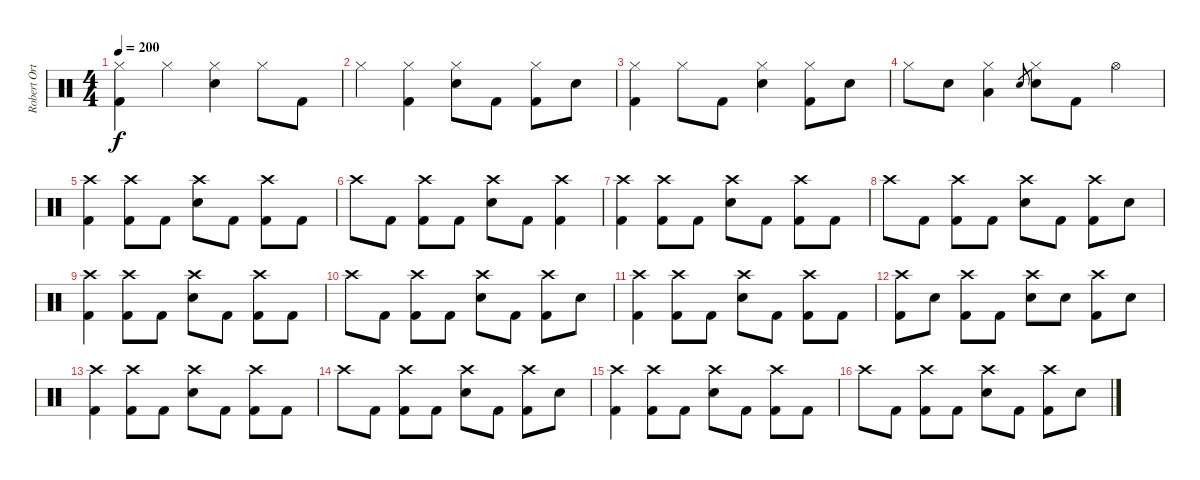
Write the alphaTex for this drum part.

\track ("Robert Ortiz - Drums" "Robert Ort") {instrument percussion}
\staff {score}
\articulation defaults
\ts (4 4)
\tempo 200
\clef neutral
\ks c
("Hi-Hat (closed)" "Kick (hit) 2").4{dy f} "Hi-Hat (closed)".4 ("Hi-Hat (closed)" "Electric Snare (hit)").4 "Hi-Hat (closed)".8 "Kick (hit) 2".8 |
"Hi-Hat (closed)".4 ("Hi-Hat (closed)" "Kick (hit) 2").4 ("Hi-Hat (closed)" "Electric Snare (hit)").8 "Kick (hit) 2".8 ("Hi-Hat (closed)" "Kick (hit) 2").8 "Electric Snare (hit)".8 |
("Hi-Hat (closed)" "Kick (hit) 2").4 "Hi-Hat (closed)".8 "Kick (hit) 2".8 ("Hi-Hat (closed)" "Electric Snare (hit)").4 ("Hi-Hat (closed)" "Kick (hit) 2").8 "Electric Snare (hit)".8 |
"Hi-Hat (closed)".8 "Electric Snare (hit)".8 ("Hi-Hat (closed)" "Low Tom (hit)").4 "Electric Snare (hit)".8{gr} ("Hi-Hat (closed)" "Electric Snare (hit)").8 "Kick (hit) 2".8 "Hi-Hat (open)".4 |
("Crash high (hit)" "Kick (hit) 2").4 ("Crash high (hit)" "Kick (hit) 2").8 "Kick (hit) 2".8 ("Crash high (hit)" "Electric Snare (hit)").8 "Kick (hit) 2".8 ("Crash high (hit)" "Kick (hit) 2").8 "Kick (hit) 2".8 |
"Crash high (hit)".8 "Kick (hit) 2".8 ("Crash high (hit)" "Kick (hit) 2").8 "Kick (hit) 2".8 ("Crash high (hit)" "Electric Snare (hit)").8 "Kick (hit) 2".8 ("Crash high (hit)" "Kick (hit) 2").4 |
("Crash high (hit)" "Kick (hit) 2").4 ("Crash high (hit)" "Kick (hit) 2").8 "Kick (hit) 2".8 ("Crash high (hit)" "Electric Snare (hit)").8 "Kick (hit) 2".8 ("Crash high (hit)" "Kick (hit) 2").8 "Kick (hit) 2".8 |
"Crash high (hit)".8 "Kick (hit) 2".8 ("Crash high (hit)" "Kick (hit) 2").8 "Kick (hit) 2".8 ("Crash high (hit)" "Electric Snare (hit)").8 "Kick (hit) 2".8 ("Crash high (hit)" "Kick (hit) 2").8 "Electric Snare (hit)".8 |
("Crash high (hit)" "Kick (hit) 2").4 ("Crash high (hit)" "Kick (hit) 2").8 "Kick (hit) 2".8 ("Crash high (hit)" "Electric Snare (hit)").8 "Kick (hit) 2".8 ("Crash high (hit)" "Kick (hit) 2").8 "Kick (hit) 2".8 |
"Crash high (hit)".8 "Kick (hit) 2".8 ("Crash high (hit)" "Kick (hit) 2").8 "Kick (hit) 2".8 ("Crash high (hit)" "Electric Snare (hit)").8 "Kick (hit) 2".8 ("Crash high (hit)" "Kick (hit) 2").8 "Electric Snare (hit)".8 |
("Crash high (hit)" "Kick (hit) 2").4 ("Crash high (hit)" "Kick (hit) 2").8 "Kick (hit) 2".8 ("Crash high (hit)" "Electric Snare (hit)").8 "Kick (hit) 2".8 ("Crash high (hit)" "Kick (hit) 2").8 "Kick (hit) 2".8 |
("Crash high (hit)" "Kick (hit) 2").8 "Electric Snare (hit)".8 ("Crash high (hit)" "Kick (hit) 2").8 "Kick (hit) 2".8 ("Crash high (hit)" "Electric Snare (hit)").8 "Electric Snare (hit)".8 ("Crash high (hit)" "Kick (hit) 2").8 "Electric Snare (hit)".8 |
("Crash high (hit)" "Kick (hit) 2").4 ("Crash high (hit)" "Kick (hit) 2").8 "Kick (hit) 2".8 ("Crash high (hit)" "Electric Snare (hit)").8 "Kick (hit) 2".8 ("Crash high (hit)" "Kick (hit) 2").8 "Kick (hit) 2".8 |
"Crash high (hit)".8 "Kick (hit) 2".8 ("Crash high (hit)" "Kick (hit) 2").8 "Kick (hit) 2".8 ("Crash high (hit)" "Electric Snare (hit)").8 "Kick (hit) 2".8 ("Crash high (hit)" "Kick (hit) 2").8 "Electric Snare (hit)".8 |
("Crash high (hit)" "Kick (hit) 2").4 ("Crash high (hit)" "Kick (hit) 2").8 "Kick (hit) 2".8 ("Crash high (hit)" "Electric Snare (hit)").8 "Kick (hit) 2".8 ("Crash high (hit)" "Kick (hit) 2").8 "Kick (hit) 2".8 |
"Crash high (hit)".8 "Kick (hit) 2".8 ("Crash high (hit)" "Kick (hit) 2").8 "Kick (hit) 2".8 ("Crash high (hit)" "Electric Snare (hit)").8 "Kick (hit) 2".8 ("Crash high (hit)" "Kick (hit) 2").8 "Electric Snare (hit)".8
